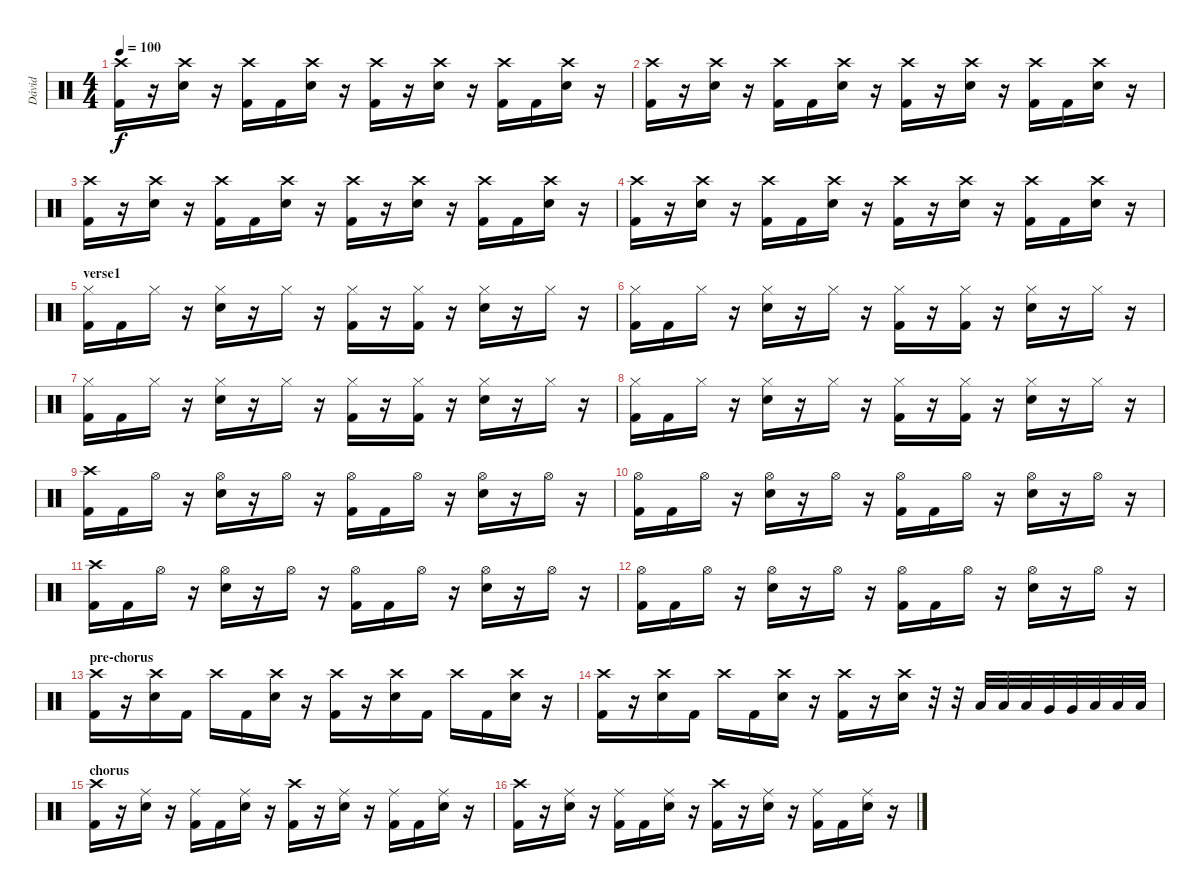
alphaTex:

\track ("Dávid" "Dávid") {instrument percussion}
\staff {score}
\articulation defaults
\ts (4 4)
\tempo 100
\clef neutral
\ks c
("Crash high (hit)" "Kick (hit) 2").16{dy f} r.16 ("Crash high (hit)" "Snare (hit) 2").16 r.16 ("Crash high (hit)" "Kick (hit) 2").16 "Kick (hit) 2".16 ("Crash high (hit)" "Snare (hit) 2").16 r.16 ("Crash high (hit)" "Kick (hit) 2").16 r.16 ("Crash high (hit)" "Snare (hit) 2").16 r.16 ("Crash high (hit)" "Kick (hit) 2").16 "Kick (hit) 2".16 ("Crash high (hit)" "Snare (hit) 2").16 r.16 |
("Crash high (hit)" "Kick (hit) 2").16 r.16 ("Crash high (hit)" "Snare (hit) 2").16 r.16 ("Crash high (hit)" "Kick (hit) 2").16 "Kick (hit) 2".16 ("Crash high (hit)" "Snare (hit) 2").16 r.16 ("Crash high (hit)" "Kick (hit) 2").16 r.16 ("Crash high (hit)" "Snare (hit) 2").16 r.16 ("Crash high (hit)" "Kick (hit) 2").16 "Kick (hit) 2".16 ("Crash high (hit)" "Snare (hit) 2").16 r.16 |
("Crash high (hit)" "Kick (hit) 2").16 r.16 ("Crash high (hit)" "Snare (hit) 2").16 r.16 ("Crash high (hit)" "Kick (hit) 2").16 "Kick (hit) 2".16 ("Crash high (hit)" "Snare (hit) 2").16 r.16 ("Crash high (hit)" "Kick (hit) 2").16 r.16 ("Crash high (hit)" "Snare (hit) 2").16 r.16 ("Crash high (hit)" "Kick (hit) 2").16 "Kick (hit) 2".16 ("Crash high (hit)" "Snare (hit) 2").16 r.16 |
("Crash high (hit)" "Kick (hit) 2").16 r.16 ("Crash high (hit)" "Snare (hit) 2").16 r.16 ("Crash high (hit)" "Kick (hit) 2").16 "Kick (hit) 2".16 ("Crash high (hit)" "Snare (hit) 2").16 r.16 ("Crash high (hit)" "Kick (hit) 2").16 r.16 ("Crash high (hit)" "Snare (hit) 2").16 r.16 ("Crash high (hit)" "Kick (hit) 2").16 "Kick (hit) 2".16 ("Crash high (hit)" "Snare (hit) 2").16 r.16 |
\section ("" "verse1")
("Hi-Hat (closed)" "Kick (hit) 2").16 "Kick (hit) 2".16 "Hi-Hat (closed)".16 r.16 ("Hi-Hat (closed)" "Snare (hit) 2").16 r.16 "Hi-Hat (closed)".16 r.16 ("Hi-Hat (closed)" "Kick (hit) 2").16 r.16 ("Hi-Hat (closed)" "Kick (hit) 2").16 r.16 ("Hi-Hat (closed)" "Snare (hit) 2").16 r.16 "Hi-Hat (closed)".16 r.16 |
("Hi-Hat (closed)" "Kick (hit) 2").16 "Kick (hit) 2".16 "Hi-Hat (closed)".16 r.16 ("Hi-Hat (closed)" "Snare (hit) 2").16 r.16 "Hi-Hat (closed)".16 r.16 ("Hi-Hat (closed)" "Kick (hit) 2").16 r.16 ("Hi-Hat (closed)" "Kick (hit) 2").16 r.16 ("Hi-Hat (closed)" "Snare (hit) 2").16 r.16 "Hi-Hat (closed)".16 r.16 |
("Hi-Hat (closed)" "Kick (hit) 2").16 "Kick (hit) 2".16 "Hi-Hat (closed)".16 r.16 ("Hi-Hat (closed)" "Snare (hit) 2").16 r.16 "Hi-Hat (closed)".16 r.16 ("Hi-Hat (closed)" "Kick (hit) 2").16 r.16 ("Hi-Hat (closed)" "Kick (hit) 2").16 r.16 ("Hi-Hat (closed)" "Snare (hit) 2").16 r.16 "Hi-Hat (closed)".16 r.16 |
("Hi-Hat (closed)" "Kick (hit) 2").16 "Kick (hit) 2".16 "Hi-Hat (closed)".16 r.16 ("Hi-Hat (closed)" "Snare (hit) 2").16 r.16 "Hi-Hat (closed)".16 r.16 ("Hi-Hat (closed)" "Kick (hit) 2").16 r.16 ("Hi-Hat (closed)" "Kick (hit) 2").16 r.16 ("Hi-Hat (closed)" "Snare (hit) 2").16 r.16 "Hi-Hat (closed)".16 r.16 |
("Crash high (hit)" "Kick (hit) 2").16 "Kick (hit) 2".16 "Hi-Hat (open)".16 r.16 ("Hi-Hat (open)" "Snare (hit) 2").16 r.16 "Hi-Hat (open)".16 r.16 ("Hi-Hat (open)" "Kick (hit) 2").16 "Kick (hit) 2".16 "Hi-Hat (open)".16 r.16 ("Hi-Hat (open)" "Snare (hit) 2").16 r.16 "Hi-Hat (open)".16 r.16 |
("Hi-Hat (open)" "Kick (hit) 2").16 "Kick (hit) 2".16 "Hi-Hat (open)".16 r.16 ("Hi-Hat (open)" "Snare (hit) 2").16 r.16 "Hi-Hat (open)".16 r.16 ("Hi-Hat (open)" "Kick (hit) 2").16 "Kick (hit) 2".16 "Hi-Hat (open)".16 r.16 ("Hi-Hat (open)" "Snare (hit) 2").16 r.16 "Hi-Hat (open)".16 r.16 |
("Crash high (hit)" "Kick (hit) 2").16 "Kick (hit) 2".16 "Hi-Hat (open)".16 r.16 ("Hi-Hat (open)" "Snare (hit) 2").16 r.16 "Hi-Hat (open)".16 r.16 ("Hi-Hat (open)" "Kick (hit) 2").16 "Kick (hit) 2".16 "Hi-Hat (open)".16 r.16 ("Hi-Hat (open)" "Snare (hit) 2").16 r.16 "Hi-Hat (open)".16 r.16 |
("Hi-Hat (open)" "Kick (hit) 2").16 "Kick (hit) 2".16 "Hi-Hat (open)".16 r.16 ("Hi-Hat (open)" "Snare (hit) 2").16 r.16 "Hi-Hat (open)".16 r.16 ("Hi-Hat (open)" "Kick (hit) 2").16 "Kick (hit) 2".16 "Hi-Hat (open)".16 r.16 ("Hi-Hat (open)" "Snare (hit) 2").16 r.16 "Hi-Hat (open)".16 r.16 |
\section ("" "pre-chorus")
("Crash high (hit)" "Kick (hit) 2").16 r.16 ("Crash high (hit)" "Snare (hit) 2").16 "Kick (hit) 2".16 "Crash high (hit)".16 "Kick (hit) 2".16 ("Crash high (hit)" "Snare (hit) 2").16 r.16 ("Crash high (hit)" "Kick (hit) 2").16 r.16 ("Crash high (hit)" "Snare (hit) 2").16 "Kick (hit) 2".16 "Crash high (hit)".16 "Kick (hit) 2".16 ("Crash high (hit)" "Snare (hit) 2").16 r.16 |
("Crash high (hit)" "Kick (hit) 2").16 r.16 ("Crash high (hit)" "Snare (hit) 2").16 "Kick (hit) 2".16 "Crash high (hit)".16 "Kick (hit) 2".16 ("Crash high (hit)" "Snare (hit) 2").16 r.16 ("Crash high (hit)" "Kick (hit) 2").16 r.16 ("Crash high (hit)" "Snare (hit) 2").16 r.32 r.32 "Low Tom (hit)".32 "Low Tom (hit)".32 "Low Tom (hit)".32 "Very Low Tom (hit)".32 "Very Low Tom (hit)".32 "Low Floor Tom (hit)".32 "Low Floor Tom (hit)".32 "Low Floor Tom (hit)".32 |
\section ("" "chorus")
("Crash high (hit)" "Kick (hit) 2").16 r.16 ("Ride (middle)" "Snare (hit) 2").16 r.16 ("Ride (middle)" "Kick (hit) 2").16 "Kick (hit) 2".16 ("Ride (middle)" "Snare (hit) 2").16 r.16 ("Crash high (hit)" "Kick (hit) 2").16 r.16 ("Ride (middle)" "Snare (hit) 2").16 r.16 ("Ride (middle)" "Kick (hit) 2").16 "Kick (hit) 2".16 ("Ride (middle)" "Snare (hit) 2").16 r.16 |
("Crash high (hit)" "Kick (hit) 2").16 r.16 ("Ride (middle)" "Snare (hit) 2").16 r.16 ("Ride (middle)" "Kick (hit) 2").16 "Kick (hit) 2".16 ("Ride (middle)" "Snare (hit) 2").16 r.16 ("Crash high (hit)" "Kick (hit) 2").16 r.16 ("Ride (middle)" "Snare (hit) 2").16 r.16 ("Ride (middle)" "Kick (hit) 2").16 "Kick (hit) 2".16 ("Ride (middle)" "Snare (hit) 2").16 r.16
